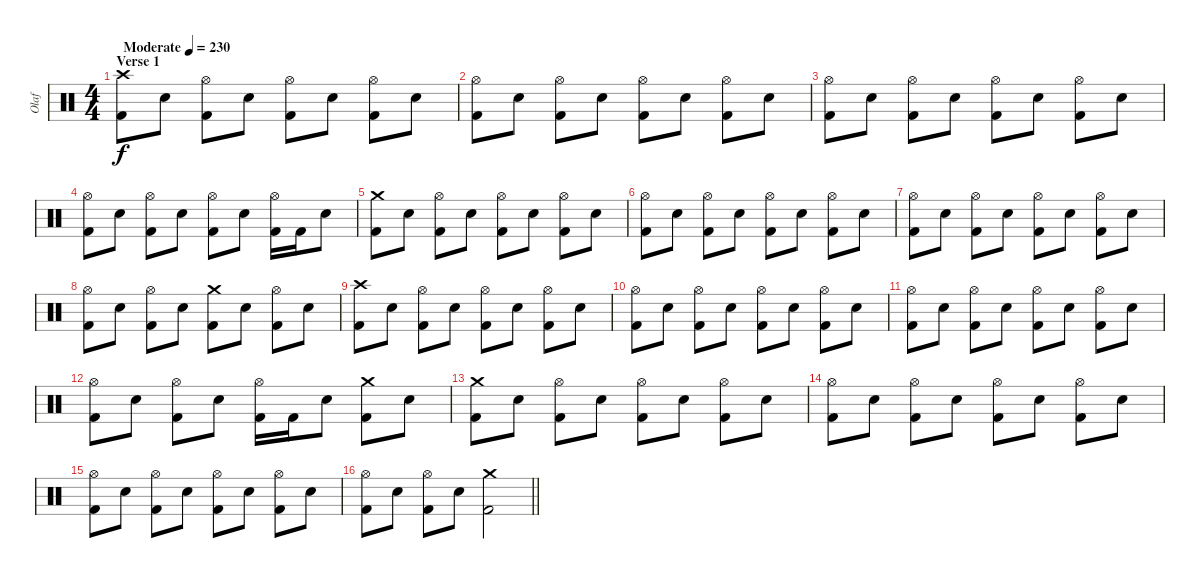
\track ("Olaf" "Olaf") {instrument percussion}
\staff {score}
\articulation defaults
\ts (4 4)
\section ("" "Verse 1")
\tempo (230 "Moderate")
\clef neutral
\ks c
("Crash high (hit)" "Kick (hit) 2").8{dy f} "Electric Snare (hit)".8 ("Hi-Hat (open)" "Kick (hit) 2").8 "Electric Snare (hit)".8 ("Hi-Hat (open)" "Kick (hit) 2").8 "Electric Snare (hit)".8 ("Hi-Hat (open)" "Kick (hit) 2").8 "Electric Snare (hit)".8 |
("Hi-Hat (open)" "Kick (hit) 2").8 "Electric Snare (hit)".8 ("Hi-Hat (open)" "Kick (hit) 2").8 "Electric Snare (hit)".8 ("Hi-Hat (open)" "Kick (hit) 2").8 "Electric Snare (hit)".8 ("Hi-Hat (open)" "Kick (hit) 2").8 "Electric Snare (hit)".8 |
("Hi-Hat (open)" "Kick (hit) 2").8 "Electric Snare (hit)".8 ("Hi-Hat (open)" "Kick (hit) 2").8 "Electric Snare (hit)".8 ("Hi-Hat (open)" "Kick (hit) 2").8 "Electric Snare (hit)".8 ("Hi-Hat (open)" "Kick (hit) 2").8 "Electric Snare (hit)".8 |
("Hi-Hat (open)" "Kick (hit) 2").8 "Electric Snare (hit)".8 ("Hi-Hat (open)" "Kick (hit) 2").8 "Electric Snare (hit)".8 ("Hi-Hat (open)" "Kick (hit) 2").8 "Electric Snare (hit)".8 ("Hi-Hat (open)" "Kick (hit) 2").16 "Kick (hit) 2".16 "Electric Snare (hit)".8 |
("Crash medium (hit)" "Kick (hit) 2").8 "Electric Snare (hit)".8 ("Hi-Hat (open)" "Kick (hit) 2").8 "Electric Snare (hit)".8 ("Hi-Hat (open)" "Kick (hit) 2").8 "Electric Snare (hit)".8 ("Hi-Hat (open)" "Kick (hit) 2").8 "Electric Snare (hit)".8 |
("Hi-Hat (open)" "Kick (hit) 2").8 "Electric Snare (hit)".8 ("Hi-Hat (open)" "Kick (hit) 2").8 "Electric Snare (hit)".8 ("Hi-Hat (open)" "Kick (hit) 2").8 "Electric Snare (hit)".8 ("Hi-Hat (open)" "Kick (hit) 2").8 "Electric Snare (hit)".8 |
("Hi-Hat (open)" "Kick (hit) 2").8 "Electric Snare (hit)".8 ("Hi-Hat (open)" "Kick (hit) 2").8 "Electric Snare (hit)".8 ("Hi-Hat (open)" "Kick (hit) 2").8 "Electric Snare (hit)".8 ("Hi-Hat (open)" "Kick (hit) 2").8 "Electric Snare (hit)".8 |
("Hi-Hat (open)" "Kick (hit) 2").8 "Electric Snare (hit)".8 ("Hi-Hat (open)" "Kick (hit) 2").8 "Electric Snare (hit)".8 ("Crash medium (hit)" "Kick (hit) 2").8 "Electric Snare (hit)".8 ("Hi-Hat (open)" "Kick (hit) 2").8 "Electric Snare (hit)".8 |
("Crash high (hit)" "Kick (hit) 2").8 "Electric Snare (hit)".8 ("Hi-Hat (open)" "Kick (hit) 2").8 "Electric Snare (hit)".8 ("Hi-Hat (open)" "Kick (hit) 2").8 "Electric Snare (hit)".8 ("Hi-Hat (open)" "Kick (hit) 2").8 "Electric Snare (hit)".8 |
("Hi-Hat (open)" "Kick (hit) 2").8 "Electric Snare (hit)".8 ("Hi-Hat (open)" "Kick (hit) 2").8 "Electric Snare (hit)".8 ("Hi-Hat (open)" "Kick (hit) 2").8 "Electric Snare (hit)".8 ("Hi-Hat (open)" "Kick (hit) 2").8 "Electric Snare (hit)".8 |
("Hi-Hat (open)" "Kick (hit) 2").8 "Electric Snare (hit)".8 ("Hi-Hat (open)" "Kick (hit) 2").8 "Electric Snare (hit)".8 ("Hi-Hat (open)" "Kick (hit) 2").8 "Electric Snare (hit)".8 ("Hi-Hat (open)" "Kick (hit) 2").8 "Electric Snare (hit)".8 |
("Hi-Hat (open)" "Kick (hit) 2").8 "Electric Snare (hit)".8 ("Hi-Hat (open)" "Kick (hit) 2").8 "Electric Snare (hit)".8 ("Hi-Hat (open)" "Kick (hit) 2").16 "Kick (hit) 2".16 "Electric Snare (hit)".8 ("Crash medium (hit)" "Kick (hit) 2").8 "Electric Snare (hit)".8 |
("Crash medium (hit)" "Kick (hit) 2").8 "Electric Snare (hit)".8 ("Hi-Hat (open)" "Kick (hit) 2").8 "Electric Snare (hit)".8 ("Hi-Hat (open)" "Kick (hit) 2").8 "Electric Snare (hit)".8 ("Hi-Hat (open)" "Kick (hit) 2").8 "Electric Snare (hit)".8 |
("Hi-Hat (open)" "Kick (hit) 2").8 "Electric Snare (hit)".8 ("Hi-Hat (open)" "Kick (hit) 2").8 "Electric Snare (hit)".8 ("Hi-Hat (open)" "Kick (hit) 2").8 "Electric Snare (hit)".8 ("Hi-Hat (open)" "Kick (hit) 2").8 "Electric Snare (hit)".8 |
("Hi-Hat (open)" "Kick (hit) 2").8 "Electric Snare (hit)".8 ("Hi-Hat (open)" "Kick (hit) 2").8 "Electric Snare (hit)".8 ("Hi-Hat (open)" "Kick (hit) 2").8 "Electric Snare (hit)".8 ("Hi-Hat (open)" "Kick (hit) 2").8 "Electric Snare (hit)".8 |
\barLineRight lightlight
("Hi-Hat (open)" "Kick (hit) 2").8 "Electric Snare (hit)".8 ("Hi-Hat (open)" "Kick (hit) 2").8 "Electric Snare (hit)".8 ("Crash medium (hit)" "Kick (hit) 2").2
